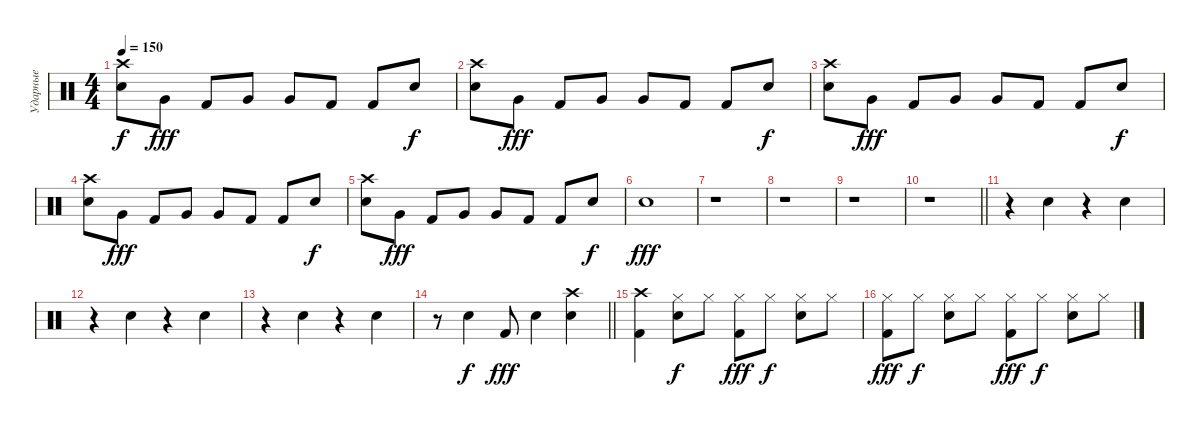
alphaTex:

\track ("Ударные" "Ударные") {instrument percussion}
\staff
\articulation defaults
\ts (4 4)
\tempo 150
\clef neutral
\ks c
("Snare (hit) 2" "Crash high (hit)").8{dy f} "Very Low Tom (hit)".8{dy fff} "Kick (hit) 2".8 "Very Low Tom (hit)".8 "Very Low Tom (hit)".8 "Kick (hit) 2".8 "Kick (hit) 2".8 "Snare (hit) 2".8{dy f} |
("Snare (hit) 2" "Crash high (hit)").8 "Very Low Tom (hit)".8{dy fff} "Kick (hit) 2".8 "Very Low Tom (hit)".8 "Very Low Tom (hit)".8 "Kick (hit) 2".8 "Kick (hit) 2".8 "Snare (hit) 2".8{dy f} |
("Snare (hit) 2" "Crash high (hit)").8 "Very Low Tom (hit)".8{dy fff} "Kick (hit) 2".8 "Very Low Tom (hit)".8 "Very Low Tom (hit)".8 "Kick (hit) 2".8 "Kick (hit) 2".8 "Snare (hit) 2".8{dy f} |
("Snare (hit) 2" "Crash high (hit)").8 "Very Low Tom (hit)".8{dy fff} "Kick (hit) 2".8 "Very Low Tom (hit)".8 "Very Low Tom (hit)".8 "Kick (hit) 2".8 "Kick (hit) 2".8 "Snare (hit) 2".8{dy f} |
("Snare (hit) 2" "Crash high (hit)").8 "Very Low Tom (hit)".8{dy fff} "Kick (hit) 2".8 "Very Low Tom (hit)".8 "Very Low Tom (hit)".8 "Kick (hit) 2".8 "Kick (hit) 2".8 "Snare (hit) 2".8{dy f} |
"Snare (hit) 2".1{dy fff} |
r.1 |
r.1 |
r.1 |
\barLineRight lightlight
r.1 |
r.4 "Snare (hit) 2".4 r.4 "Snare (hit) 2".4 |
r.4 "Snare (hit) 2".4 r.4 "Snare (hit) 2".4 |
r.4 "Snare (hit) 2".4 r.4 "Snare (hit) 2".4 |
\barLineRight lightlight
r.8 "Snare (hit) 2".4{dy f} "Kick (hit) 2".8{dy fff} "Snare (hit) 2".4 ("Snare (hit) 2" "Crash high (hit)").4 |
("Kick (hit) 2" "Crash high (hit)").4 ("Snare (hit) 2" "Hi-Hat (closed)").8{dy f} "Hi-Hat (closed)".8 ("Kick (hit) 2" "Hi-Hat (closed)").8{dy fff} "Hi-Hat (closed)".8{dy f} ("Snare (hit) 2" "Hi-Hat (closed)").8 "Hi-Hat (closed)".8 |
("Kick (hit) 2" "Hi-Hat (closed)").8{dy fff} "Hi-Hat (closed)".8{dy f} ("Snare (hit) 2" "Hi-Hat (closed)").8 "Hi-Hat (closed)".8 ("Kick (hit) 2" "Hi-Hat (closed)").8{dy fff} "Hi-Hat (closed)".8{dy f} ("Snare (hit) 2" "Hi-Hat (closed)").8 "Hi-Hat (closed)".8
